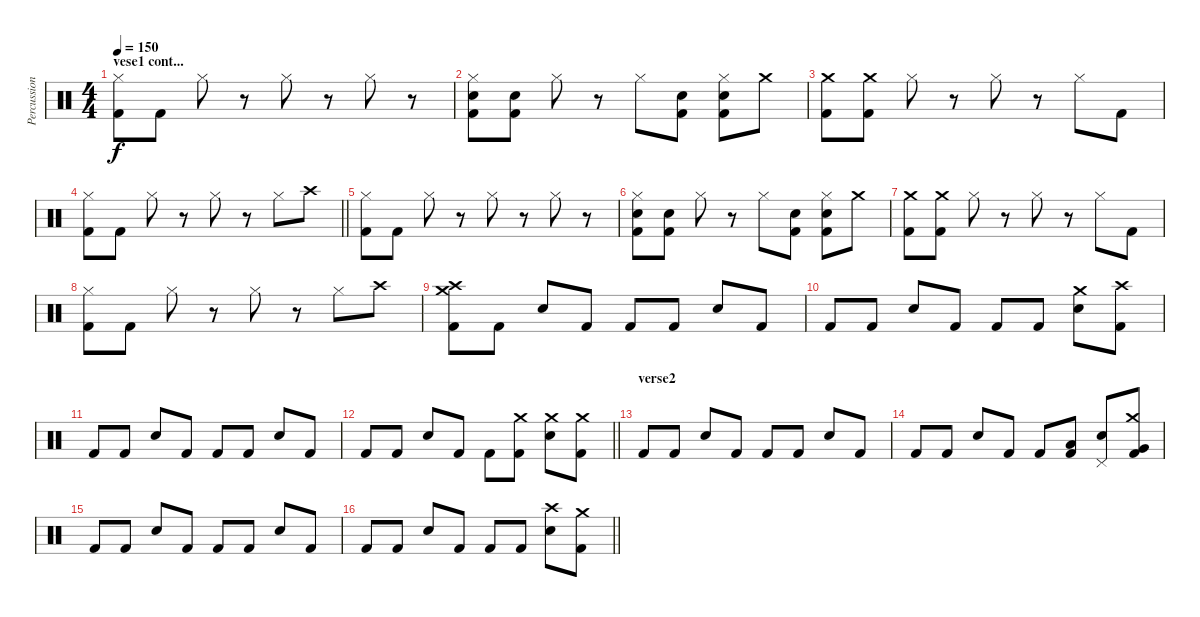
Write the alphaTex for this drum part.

\track ("Percussion" "Percussion") {instrument percussion}
\staff {score}
\articulation defaults
\ts (4 4)
\section ("" "vese1 cont...")
\tempo 150
\clef neutral
\ks c
("Hi-Hat (closed)" "Kick (hit) 2").8{dy f} "Kick (hit) 2".8 "Hi-Hat (closed)".8 r.8 "Hi-Hat (closed)".8 r.8 "Hi-Hat (closed)".8 r.8 |
("Hi-Hat (closed)" "Electric Snare (hit)" "Kick (hit) 2").8 ("Electric Snare (hit)" "Kick (hit) 2").8 "Hi-Hat (closed)".8 r.8 "Hi-Hat (closed)".8 ("Electric Snare (hit)" "Kick (hit) 2").8 ("Hi-Hat (closed)" "Electric Snare (hit)" "Kick (hit) 2").8 "Crash medium (hit)".8 |
("Crash medium (hit)" "Kick (hit) 2").8 ("Crash medium (hit)" "Kick (hit) 2").8 "Hi-Hat (closed)".8 r.8 "Hi-Hat (closed)".8 r.8 "Hi-Hat (closed)".8 "Kick (hit) 2".8 |
\barLineRight lightlight
("Hi-Hat (closed)" "Kick (hit) 2").8 "Kick (hit) 2".8 "Hi-Hat (closed)".8 r.8 "Hi-Hat (closed)".8 r.8 "Hi-Hat (closed)".8 "Crash high (hit)".8 |
("Hi-Hat (closed)" "Kick (hit) 2").8 "Kick (hit) 2".8 "Hi-Hat (closed)".8 r.8 "Hi-Hat (closed)".8 r.8 "Hi-Hat (closed)".8 r.8 |
("Hi-Hat (closed)" "Electric Snare (hit)" "Kick (hit) 2").8 ("Electric Snare (hit)" "Kick (hit) 2").8 "Hi-Hat (closed)".8 r.8 "Hi-Hat (closed)".8 ("Electric Snare (hit)" "Kick (hit) 2").8 ("Hi-Hat (closed)" "Electric Snare (hit)" "Kick (hit) 2").8 "Crash medium (hit)".8 |
("Crash medium (hit)" "Kick (hit) 2").8 ("Crash medium (hit)" "Kick (hit) 2").8 "Hi-Hat (closed)".8 r.8 "Hi-Hat (closed)".8 r.8 "Hi-Hat (closed)".8 "Kick (hit) 2".8 |
("Hi-Hat (closed)" "Kick (hit) 2").8 "Kick (hit) 2".8 "Hi-Hat (closed)".8 r.8 "Hi-Hat (closed)".8 r.8 "Hi-Hat (closed)".8 "Crash high (hit)".8 |
("Kick (hit) 2" "Crash medium (hit)" "Crash high (hit)").8 "Kick (hit) 2".8 "Electric Snare (hit)".8 "Kick (hit) 2".8 "Kick (hit) 2".8 "Kick (hit) 2".8 "Electric Snare (hit)".8 "Kick (hit) 2".8 |
"Kick (hit) 2".8 "Kick (hit) 2".8 "Electric Snare (hit)".8 "Kick (hit) 2".8 "Kick (hit) 2".8 "Kick (hit) 2".8 ("Electric Snare (hit)" "Crash medium (hit)").8 ("Kick (hit) 2" "Crash high (hit)").8 |
"Kick (hit) 2".8 "Kick (hit) 2".8 "Electric Snare (hit)".8 "Kick (hit) 2".8 "Kick (hit) 2".8 "Kick (hit) 2".8 "Electric Snare (hit)".8 "Kick (hit) 2".8 |
\barLineRight lightlight "Kick (hit) 2".8 "Kick (hit) 2".8 "Electric Snare (hit)".8 "Kick (hit) 2".8 "Kick (hit) 2".8
("Kick (hit) 2" "Crash medium (hit)").8 ("Electric Snare (hit)" "Crash medium (hit)").8 ("Kick (hit) 2" "Crash medium (hit)").8 |
\section ("" "verse2")
"Kick (hit) 2".8 "Kick (hit) 2".8 "Electric Snare (hit)".8 "Kick (hit) 2".8 "Kick (hit) 2".8 "Kick (hit) 2".8 "Electric Snare (hit)".8 "Kick (hit) 2".8 |
"Kick (hit) 2".8 "Kick (hit) 2".8 "Electric Snare (hit)".8 "Kick (hit) 2".8 "Kick (hit) 2".8 ("Kick (hit) 2" "Low Tom (hit)").8 ("Electric Snare (hit)" "Pedal Hi-Hat (hit)").8 ("Kick (hit) 2" "Crash medium (hit)" "Very Low Tom (hit)").8 |
"Kick (hit) 2".8 "Kick (hit) 2".8 "Electric Snare (hit)".8 "Kick (hit) 2".8 "Kick (hit) 2".8 "Kick (hit) 2".8 "Electric Snare (hit)".8 "Kick (hit) 2".8 |
\barLineRight lightlight "Kick (hit) 2".8 "Kick (hit) 2".8 "Electric Snare (hit)".8 "Kick (hit) 2".8 "Kick (hit) 2".8 "Kick (hit) 2".8
("Electric Snare (hit)" "Crash high (hit)").8 ("Kick (hit) 2" "Crash medium (hit)").8
